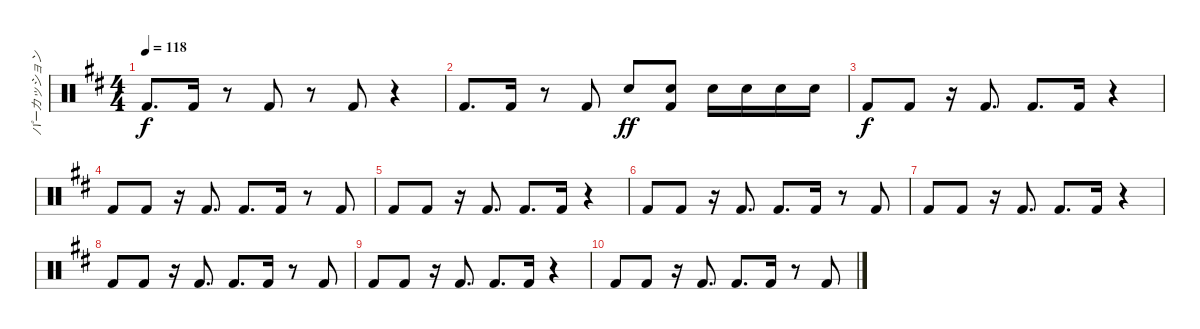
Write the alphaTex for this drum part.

\track ("パーカッション" "パーカッション") {instrument percussion}
\staff {score}
\articulation defaults
\ts (4 4)
\tempo 118
\clef neutral
\ks d "Kick (hit) 2".8{d dy f} "Kick (hit) 2".16
r.8 "Kick (hit) 2".8 r.8 "Kick (hit) 2".8 r.4 |
"Kick (hit) 2".8{d} "Kick (hit) 2".16 r.8 "Kick (hit) 2".8 "Electric Snare (hit)".8{dy ff} ("Electric Snare (hit)" "Kick (hit) 2").8 "Electric Snare (hit)".16 "Electric Snare (hit)".16{beam merge} "Electric Snare (hit)".16 "Electric Snare (hit)".16 |
"Kick (hit) 2".8{dy f} "Kick (hit) 2".8 r.16 "Kick (hit) 2".8{d} "Kick (hit) 2".8{d} "Kick (hit) 2".16 r.4 |
"Kick (hit) 2".8 "Kick (hit) 2".8 r.16 "Kick (hit) 2".8{d} "Kick (hit) 2".8{d} "Kick (hit) 2".16 r.8 "Kick (hit) 2".8 |
"Kick (hit) 2".8 "Kick (hit) 2".8 r.16 "Kick (hit) 2".8{d} "Kick (hit) 2".8{d} "Kick (hit) 2".16 r.4 |
"Kick (hit) 2".8 "Kick (hit) 2".8 r.16 "Kick (hit) 2".8{d} "Kick (hit) 2".8{d} "Kick (hit) 2".16 r.8 "Kick (hit) 2".8 |
"Kick (hit) 2".8 "Kick (hit) 2".8 r.16 "Kick (hit) 2".8{d} "Kick (hit) 2".8{d} "Kick (hit) 2".16 r.4 |
"Kick (hit) 2".8 "Kick (hit) 2".8 r.16 "Kick (hit) 2".8{d} "Kick (hit) 2".8{d} "Kick (hit) 2".16 r.8 "Kick (hit) 2".8 |
"Kick (hit) 2".8 "Kick (hit) 2".8 r.16 "Kick (hit) 2".8{d} "Kick (hit) 2".8{d} "Kick (hit) 2".16 r.4 |
"Kick (hit) 2".8 "Kick (hit) 2".8 r.16 "Kick (hit) 2".8{d} "Kick (hit) 2".8{d} "Kick (hit) 2".16 r.8 "Kick (hit) 2".8
